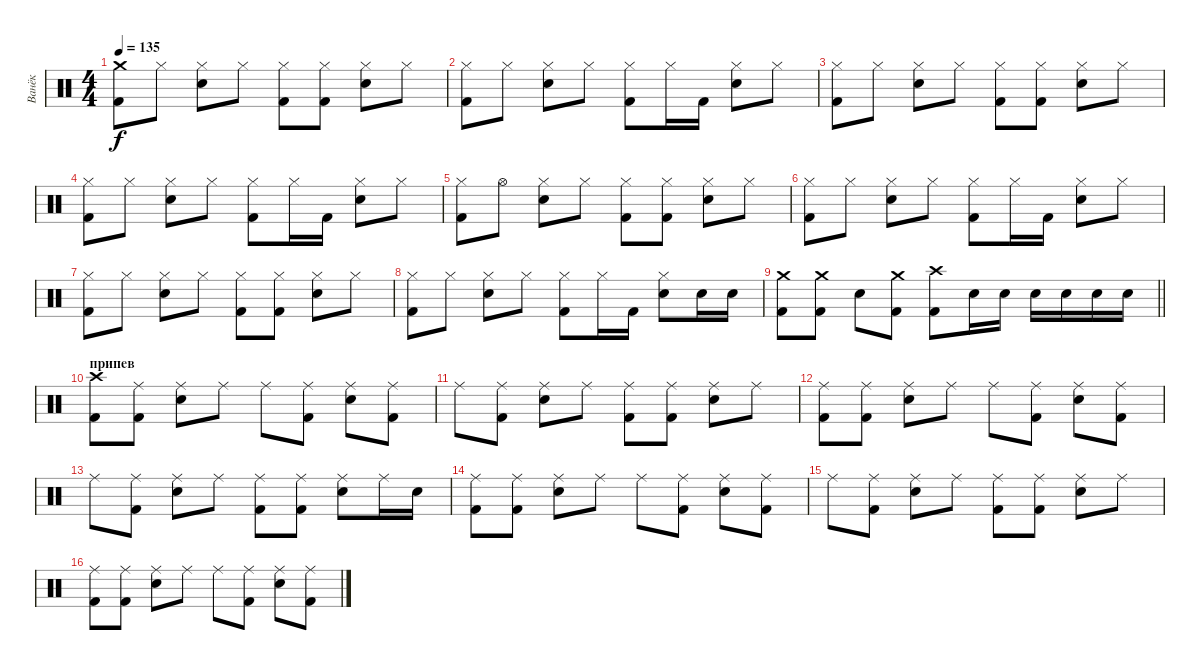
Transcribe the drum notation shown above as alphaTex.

\track ("Ванёк" "Ванёк") {instrument percussion}
\staff {score}
\articulation defaults
\ts (4 4)
\tempo 135
\clef neutral
\ks c
("Crash medium (hit)" "Kick (hit) 2").8{dy f} "Hi-Hat (closed)".8 ("Hi-Hat (closed)" "Snare (hit) 2").8 "Hi-Hat (closed)".8 ("Hi-Hat (closed)" "Kick (hit) 2").8 ("Hi-Hat (closed)" "Kick (hit) 2").8 ("Hi-Hat (closed)" "Snare (hit) 2").8 "Hi-Hat (closed)".8 |
("Hi-Hat (closed)" "Kick (hit) 2").8 "Hi-Hat (closed)".8 ("Hi-Hat (closed)" "Snare (hit) 2").8 "Hi-Hat (closed)".8 ("Hi-Hat (closed)" "Kick (hit) 2").8 "Hi-Hat (closed)".16 "Kick (hit) 2".16 ("Hi-Hat (closed)" "Snare (hit) 2").8 "Hi-Hat (closed)".8 |
("Hi-Hat (closed)" "Kick (hit) 2").8 "Hi-Hat (closed)".8 ("Hi-Hat (closed)" "Snare (hit) 2").8 "Hi-Hat (closed)".8 ("Hi-Hat (closed)" "Kick (hit) 2").8 ("Hi-Hat (closed)" "Kick (hit) 2").8 ("Hi-Hat (closed)" "Snare (hit) 2").8 "Hi-Hat (closed)".8 |
("Hi-Hat (closed)" "Kick (hit) 2").8 "Hi-Hat (closed)".8 ("Hi-Hat (closed)" "Snare (hit) 2").8 "Hi-Hat (closed)".8 ("Hi-Hat (closed)" "Kick (hit) 2").8 "Hi-Hat (closed)".16 "Kick (hit) 2".16 ("Hi-Hat (closed)" "Snare (hit) 2").8 "Hi-Hat (closed)".8 |
("Hi-Hat (closed)" "Kick (hit) 2").8 "Hi-Hat (open)".8 ("Hi-Hat (closed)" "Snare (hit) 2").8 "Hi-Hat (closed)".8 ("Hi-Hat (closed)" "Kick (hit) 2").8 ("Hi-Hat (closed)" "Kick (hit) 2").8 ("Hi-Hat (closed)" "Snare (hit) 2").8 "Hi-Hat (closed)".8 |
("Hi-Hat (closed)" "Kick (hit) 2").8 "Hi-Hat (closed)".8 ("Hi-Hat (closed)" "Snare (hit) 2").8 "Hi-Hat (closed)".8 ("Hi-Hat (closed)" "Kick (hit) 2").8 "Hi-Hat (closed)".16 "Kick (hit) 2".16 ("Hi-Hat (closed)" "Snare (hit) 2").8 "Hi-Hat (closed)".8 |
("Hi-Hat (closed)" "Kick (hit) 2").8 "Hi-Hat (closed)".8 ("Hi-Hat (closed)" "Snare (hit) 2").8 "Hi-Hat (closed)".8 ("Hi-Hat (closed)" "Kick (hit) 2").8 ("Hi-Hat (closed)" "Kick (hit) 2").8 ("Hi-Hat (closed)" "Snare (hit) 2").8 "Hi-Hat (closed)".8 |
("Hi-Hat (closed)" "Kick (hit) 2").8 "Hi-Hat (closed)".8 ("Hi-Hat (closed)" "Snare (hit) 2").8 "Hi-Hat (closed)".8 ("Hi-Hat (closed)" "Kick (hit) 2").8 "Hi-Hat (closed)".16 "Kick (hit) 2".16 ("Hi-Hat (closed)" "Snare (hit) 2").8 "Snare (hit) 2".16 "Snare (hit) 2".16 |
\barLineRight lightlight
("Crash medium (hit)" "Kick (hit) 2").8 ("Crash medium (hit)" "Kick (hit) 2").8 "Snare (hit) 2".8 ("Crash medium (hit)" "Kick (hit) 2").8 ("Crash high (hit)" "Kick (hit) 2").8 "Snare (hit) 2".16 "Snare (hit) 2".16 "Snare (hit) 2".16 "Snare (hit) 2".16 "Snare (hit) 2".16 "Snare (hit) 2".16 |
\section ("" "припев")
("Crash high (hit)" "Kick (hit) 2").8 ("Ride (middle)" "Kick (hit) 2").8 ("Ride (middle)" "Snare (hit) 2").8 "Ride (middle)".8 "Ride (middle)".8 ("Ride (middle)" "Kick (hit) 2").8 ("Ride (middle)" "Snare (hit) 2").8 ("Ride (middle)" "Kick (hit) 2").8 |
"Ride (middle)".8 ("Ride (middle)" "Kick (hit) 2").8 ("Ride (middle)" "Snare (hit) 2").8 "Ride (middle)".8 ("Ride (middle)" "Kick (hit) 2").8 ("Ride (middle)" "Kick (hit) 2").8 ("Ride (middle)" "Snare (hit) 2").8 "Ride (middle)".8 |
("Ride (middle)" "Kick (hit) 2").8 ("Ride (middle)" "Kick (hit) 2").8 ("Ride (middle)" "Snare (hit) 2").8 "Ride (middle)".8 "Ride (middle)".8 ("Ride (middle)" "Kick (hit) 2").8 ("Ride (middle)" "Snare (hit) 2").8 ("Ride (middle)" "Kick (hit) 2").8 |
"Ride (middle)".8 ("Ride (middle)" "Kick (hit) 2").8 ("Ride (middle)" "Snare (hit) 2").8 "Ride (middle)".8 ("Ride (middle)" "Kick (hit) 2").8 ("Ride (middle)" "Kick (hit) 2").8 ("Ride (middle)" "Snare (hit) 2").8 "Ride (middle)".16 "Snare (hit) 2".16 |
("Ride (middle)" "Kick (hit) 2").8 ("Ride (middle)" "Kick (hit) 2").8 ("Ride (middle)" "Snare (hit) 2").8 "Ride (middle)".8 "Ride (middle)".8 ("Ride (middle)" "Kick (hit) 2").8 ("Ride (middle)" "Snare (hit) 2").8 ("Ride (middle)" "Kick (hit) 2").8 |
"Ride (middle)".8 ("Ride (middle)" "Kick (hit) 2").8 ("Ride (middle)" "Snare (hit) 2").8 "Ride (middle)".8 ("Ride (middle)" "Kick (hit) 2").8 ("Ride (middle)" "Kick (hit) 2").8 ("Ride (middle)" "Snare (hit) 2").8 "Ride (middle)".8 |
("Ride (middle)" "Kick (hit) 2").8 ("Ride (middle)" "Kick (hit) 2").8 ("Ride (middle)" "Snare (hit) 2").8 "Ride (middle)".8 "Ride (middle)".8 ("Ride (middle)" "Kick (hit) 2").8 ("Ride (middle)" "Snare (hit) 2").8 ("Ride (middle)" "Kick (hit) 2").8
